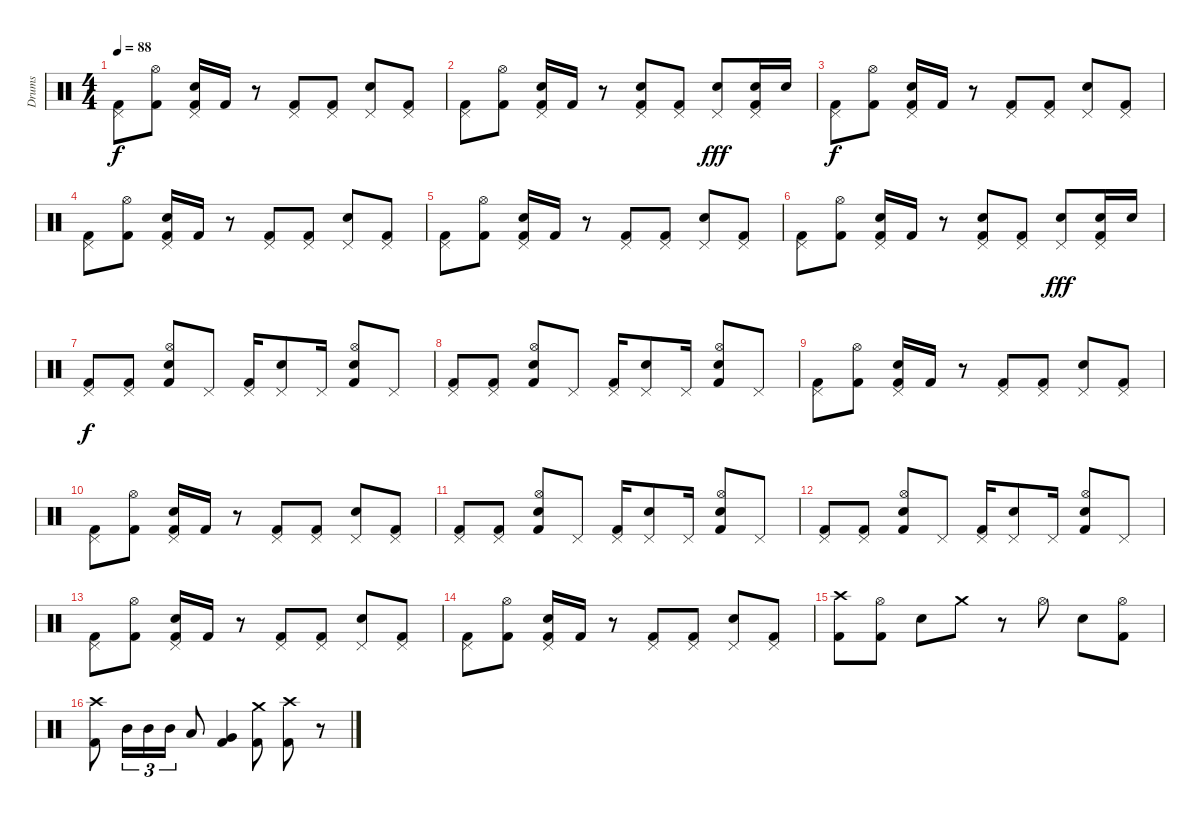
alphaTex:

\track ("Drums" "Drums") {instrument percussion}
\staff {score}
\articulation defaults
\ts (4 4)
\tempo 88
\clef neutral
\ks c
("Pedal Hi-Hat (hit)" "Kick (hit) 2").8{dy f} ("Hi-Hat (open)" "Kick (hit) 2").8 ("Pedal Hi-Hat (hit)" "Snare (hit) 2" "Kick (hit) 2").16 "Kick (hit) 2".16 r.8 ("Pedal Hi-Hat (hit)" "Kick (hit) 2").8 ("Pedal Hi-Hat (hit)" "Kick (hit) 2").8 ("Pedal Hi-Hat (hit)" "Snare (hit) 2").8 ("Pedal Hi-Hat (hit)" "Kick (hit) 2").8 |
("Pedal Hi-Hat (hit)" "Kick (hit) 2").8 ("Hi-Hat (open)" "Kick (hit) 2").8 ("Pedal Hi-Hat (hit)" "Snare (hit) 2" "Kick (hit) 2").16 "Kick (hit) 2".16 r.8 ("Pedal Hi-Hat (hit)" "Snare (hit) 2" "Kick (hit) 2").8 ("Pedal Hi-Hat (hit)" "Kick (hit) 2").8 ("Pedal Hi-Hat (hit)" "Snare (hit) 2").8{dy fff} ("Pedal Hi-Hat (hit)" "Snare (hit) 2" "Kick (hit) 2").16 "Snare (hit) 2".16 |
("Pedal Hi-Hat (hit)" "Kick (hit) 2").8{dy f} ("Hi-Hat (open)" "Kick (hit) 2").8 ("Pedal Hi-Hat (hit)" "Snare (hit) 2" "Kick (hit) 2").16 "Kick (hit) 2".16 r.8 ("Pedal Hi-Hat (hit)" "Kick (hit) 2").8 ("Pedal Hi-Hat (hit)" "Kick (hit) 2").8 ("Pedal Hi-Hat (hit)" "Snare (hit) 2").8 ("Pedal Hi-Hat (hit)" "Kick (hit) 2").8 |
("Pedal Hi-Hat (hit)" "Kick (hit) 2").8 ("Hi-Hat (open)" "Kick (hit) 2").8 ("Pedal Hi-Hat (hit)" "Snare (hit) 2" "Kick (hit) 2").16 "Kick (hit) 2".16 r.8 ("Pedal Hi-Hat (hit)" "Kick (hit) 2").8 ("Pedal Hi-Hat (hit)" "Kick (hit) 2").8 ("Pedal Hi-Hat (hit)" "Snare (hit) 2").8 ("Pedal Hi-Hat (hit)" "Kick (hit) 2").8 |
("Pedal Hi-Hat (hit)" "Kick (hit) 2").8 ("Hi-Hat (open)" "Kick (hit) 2").8 ("Pedal Hi-Hat (hit)" "Snare (hit) 2" "Kick (hit) 2").16 "Kick (hit) 2".16 r.8 ("Pedal Hi-Hat (hit)" "Kick (hit) 2").8 ("Pedal Hi-Hat (hit)" "Kick (hit) 2").8 ("Pedal Hi-Hat (hit)" "Snare (hit) 2").8 ("Pedal Hi-Hat (hit)" "Kick (hit) 2").8 |
("Pedal Hi-Hat (hit)" "Kick (hit) 2").8 ("Hi-Hat (open)" "Kick (hit) 2").8 ("Pedal Hi-Hat (hit)" "Snare (hit) 2" "Kick (hit) 2").16 "Kick (hit) 2".16 r.8 ("Pedal Hi-Hat (hit)" "Snare (hit) 2" "Kick (hit) 2").8 ("Pedal Hi-Hat (hit)" "Kick (hit) 2").8 ("Pedal Hi-Hat (hit)" "Snare (hit) 2").8{dy fff} ("Pedal Hi-Hat (hit)" "Snare (hit) 2" "Kick (hit) 2").16 "Snare (hit) 2".16 |
("Pedal Hi-Hat (hit)" "Kick (hit) 2").8{dy f} ("Pedal Hi-Hat (hit)" "Kick (hit) 2").8 ("Hi-Hat (open)" "Snare (hit) 2" "Kick (hit) 2").8 "Pedal Hi-Hat (hit)".8 ("Pedal Hi-Hat (hit)" "Kick (hit) 2").16 ("Pedal Hi-Hat (hit)" "Snare (hit) 2").8 "Pedal Hi-Hat (hit)".16 ("Hi-Hat (open)" "Snare (hit) 2" "Kick (hit) 2").8 "Pedal Hi-Hat (hit)".8 |
("Pedal Hi-Hat (hit)" "Kick (hit) 2").8 ("Pedal Hi-Hat (hit)" "Kick (hit) 2").8 ("Hi-Hat (open)" "Snare (hit) 2" "Kick (hit) 2").8 "Pedal Hi-Hat (hit)".8 ("Pedal Hi-Hat (hit)" "Kick (hit) 2").16 ("Pedal Hi-Hat (hit)" "Snare (hit) 2").8 "Pedal Hi-Hat (hit)".16 ("Hi-Hat (open)" "Snare (hit) 2" "Kick (hit) 2").8 "Pedal Hi-Hat (hit)".8 |
("Pedal Hi-Hat (hit)" "Kick (hit) 2").8 ("Hi-Hat (open)" "Kick (hit) 2").8 ("Pedal Hi-Hat (hit)" "Snare (hit) 2" "Kick (hit) 2").16 "Kick (hit) 2".16 r.8 ("Pedal Hi-Hat (hit)" "Kick (hit) 2").8 ("Pedal Hi-Hat (hit)" "Kick (hit) 2").8 ("Pedal Hi-Hat (hit)" "Snare (hit) 2").8 ("Pedal Hi-Hat (hit)" "Kick (hit) 2").8 |
("Pedal Hi-Hat (hit)" "Kick (hit) 2").8 ("Hi-Hat (open)" "Kick (hit) 2").8 ("Pedal Hi-Hat (hit)" "Snare (hit) 2" "Kick (hit) 2").16 "Kick (hit) 2".16 r.8 ("Pedal Hi-Hat (hit)" "Kick (hit) 2").8 ("Pedal Hi-Hat (hit)" "Kick (hit) 2").8 ("Pedal Hi-Hat (hit)" "Snare (hit) 2").8 ("Pedal Hi-Hat (hit)" "Kick (hit) 2").8 |
("Pedal Hi-Hat (hit)" "Kick (hit) 2").8 ("Pedal Hi-Hat (hit)" "Kick (hit) 2").8 ("Hi-Hat (open)" "Snare (hit) 2" "Kick (hit) 2").8 "Pedal Hi-Hat (hit)".8 ("Pedal Hi-Hat (hit)" "Kick (hit) 2").16 ("Pedal Hi-Hat (hit)" "Snare (hit) 2").8 "Pedal Hi-Hat (hit)".16 ("Hi-Hat (open)" "Snare (hit) 2" "Kick (hit) 2").8 "Pedal Hi-Hat (hit)".8 |
("Pedal Hi-Hat (hit)" "Kick (hit) 2").8 ("Pedal Hi-Hat (hit)" "Kick (hit) 2").8 ("Hi-Hat (open)" "Snare (hit) 2" "Kick (hit) 2").8 "Pedal Hi-Hat (hit)".8 ("Pedal Hi-Hat (hit)" "Kick (hit) 2").16 ("Pedal Hi-Hat (hit)" "Snare (hit) 2").8 "Pedal Hi-Hat (hit)".16 ("Hi-Hat (open)" "Snare (hit) 2" "Kick (hit) 2").8 "Pedal Hi-Hat (hit)".8 |
("Pedal Hi-Hat (hit)" "Kick (hit) 2").8 ("Hi-Hat (open)" "Kick (hit) 2").8 ("Pedal Hi-Hat (hit)" "Snare (hit) 2" "Kick (hit) 2").16 "Kick (hit) 2".16 r.8 ("Pedal Hi-Hat (hit)" "Kick (hit) 2").8 ("Pedal Hi-Hat (hit)" "Kick (hit) 2").8 ("Pedal Hi-Hat (hit)" "Snare (hit) 2").8 ("Pedal Hi-Hat (hit)" "Kick (hit) 2").8 |
("Pedal Hi-Hat (hit)" "Kick (hit) 2").8 ("Hi-Hat (open)" "Kick (hit) 2").8 ("Pedal Hi-Hat (hit)" "Snare (hit) 2" "Kick (hit) 2").16 "Kick (hit) 2".16 r.8 ("Pedal Hi-Hat (hit)" "Kick (hit) 2").8 ("Pedal Hi-Hat (hit)" "Kick (hit) 2").8 ("Pedal Hi-Hat (hit)" "Snare (hit) 2").8 ("Pedal Hi-Hat (hit)" "Kick (hit) 2").8 |
("Crash high (hit)" "Kick (hit) 2").8 ("Hi-Hat (open)" "Kick (hit) 2").8 "Snare (hit) 2".8 "Crash medium (hit)".8 r.8 "Hi-Hat (open)".8 "Snare (hit) 2".8 ("Hi-Hat (open)" "Kick (hit) 2").8 |
("Crash high (hit)" "Kick (hit) 2").8 "Mid Tom (hit)".16{tu (3 2)} "Mid Tom (hit)".16{tu (3 2)} "Mid Tom (hit)".16{tu (3 2)} "Low Tom (hit)".8 ("Very Low Tom (hit)" "Kick (hit) 2").4 ("Crash medium (hit)" "Kick (hit) 2").8 ("Crash high (hit)" "Kick (hit) 2").8 r.8
